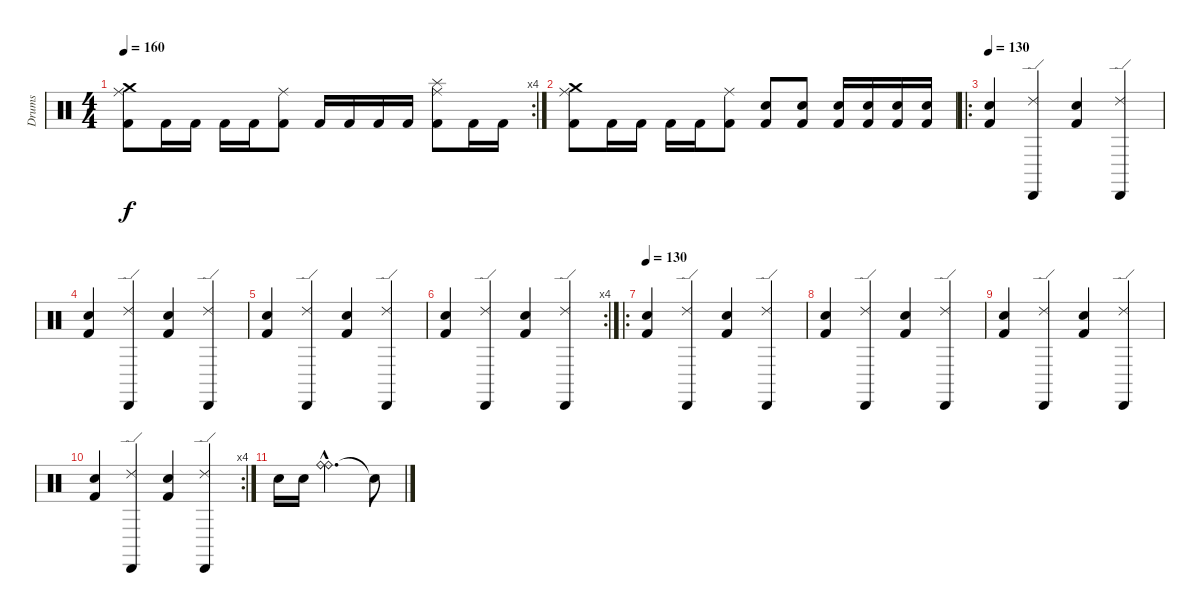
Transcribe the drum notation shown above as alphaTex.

\track ("Drums" "Drums") {instrument percussion}
\staff {score}
\articulation defaults
\rc 4
\ts (4 4)
\tempo 160
\clef neutral
\ks c
("Crash medium (hit)" "Ride (middle)" "Kick (hit) 2").8{dy f} "Kick (hit) 2".16 "Kick (hit) 2".16 "Kick (hit) 2".16 "Kick (hit) 2".16 ("Ride (middle)" "Kick (hit) 2").8 "Kick (hit) 2".16 "Kick (hit) 2".16 "Kick (hit) 2".16 "Kick (hit) 2".16 ("Splash (hit)" "Ride (middle)" "Kick (hit) 2").8 "Kick (hit) 2".16 "Kick (hit) 2".16 |
("Crash medium (hit)" "Ride (middle)" "Kick (hit) 2").8 "Kick (hit) 2".16 "Kick (hit) 2".16 "Kick (hit) 2".16 "Kick (hit) 2".16 ("Ride (middle)" "Kick (hit) 2").8 ("Snare (hit) 2" "Kick (hit) 2").8 ("Snare (hit) 2" "Kick (hit) 2").8 ("Snare (hit) 2" "Kick (hit) 2").16 ("Snare (hit) 2" "Kick (hit) 2").16 ("Snare (hit) 2" "Kick (hit) 2").16 ("Snare (hit) 2" "Kick (hit) 2").16 |
\ro
\tempo 130
("Kick (hit) 2" "Snare (hit) 2").4 ("Ride (edge) 2" "Cabasa (hit)").4 ("Kick (hit) 2" "Snare (hit) 2").4 ("Ride (edge) 2" "Cabasa (hit)").4 |
("Kick (hit) 2" "Snare (hit) 2").4 ("Ride (edge) 2" "Cabasa (hit)").4 ("Kick (hit) 2" "Snare (hit) 2").4 ("Ride (edge) 2" "Cabasa (hit)").4 |
("Kick (hit) 2" "Snare (hit) 2").4 ("Ride (edge) 2" "Cabasa (hit)").4 ("Kick (hit) 2" "Snare (hit) 2").4 ("Ride (edge) 2" "Cabasa (hit)").4 |
\rc 4
("Kick (hit) 2" "Snare (hit) 2").4 ("Ride (edge) 2" "Cabasa (hit)").4 ("Kick (hit) 2" "Snare (hit) 2").4 ("Ride (edge) 2" "Cabasa (hit)").4 |
\ro
\tempo 130
("Kick (hit) 2" "Snare (hit) 2").4 ("Ride (edge) 2" "Cabasa (hit)").4 ("Kick (hit) 2" "Snare (hit) 2").4 ("Ride (edge) 2" "Cabasa (hit)").4 |
("Kick (hit) 2" "Snare (hit) 2").4 ("Ride (edge) 2" "Cabasa (hit)").4 ("Kick (hit) 2" "Snare (hit) 2").4 ("Ride (edge) 2" "Cabasa (hit)").4 |
("Kick (hit) 2" "Snare (hit) 2").4 ("Ride (edge) 2" "Cabasa (hit)").4 ("Kick (hit) 2" "Snare (hit) 2").4 ("Ride (edge) 2" "Cabasa (hit)").4 |
\rc 4
("Kick (hit) 2" "Snare (hit) 2").4 ("Ride (edge) 2" "Cabasa (hit)").4 ("Kick (hit) 2" "Snare (hit) 2").4 ("Ride (edge) 2" "Cabasa (hit)").4 |
"Snare (hit) 2".16 "Snare (hit) 2".16 ("Ride (bell)"{hac} "Ride (bell)"{hac}).2{d} "Snare (hit)"{t}.8
